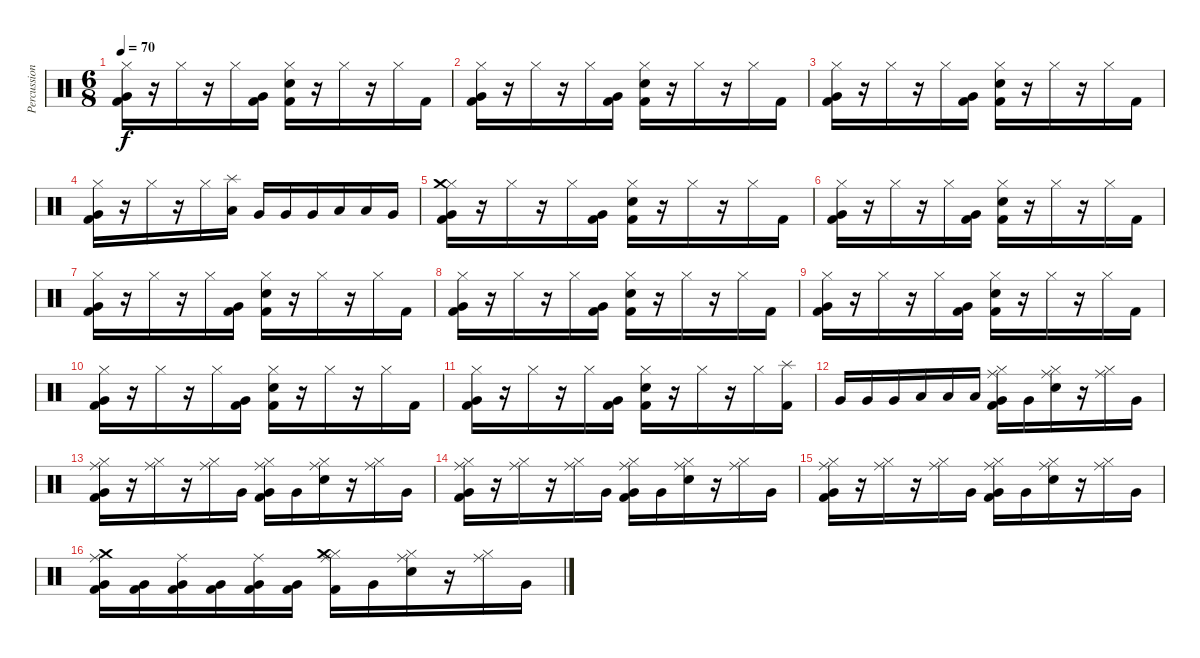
\track ("Percussion" "Percussion") {instrument percussion}
\staff {score}
\articulation defaults
\ts (6 8)
\tempo 70
\clef neutral
\ks c
("Very Low Tom (hit)" "Hi-Hat (closed)" "Kick (hit) 2").16{dy f} r.16 "Hi-Hat (closed)".16 r.16 "Hi-Hat (closed)".16 ("Kick (hit) 2" "Very Low Tom (hit)").16 ("Hi-Hat (closed)" "Electric Snare (hit)" "Kick (hit) 2").16 r.16 "Hi-Hat (closed)".16 r.16 "Hi-Hat (closed)".16 "Kick (hit) 2".16 |
("Very Low Tom (hit)" "Hi-Hat (closed)" "Kick (hit) 2").16 r.16 "Hi-Hat (closed)".16 r.16 "Hi-Hat (closed)".16 ("Kick (hit) 2" "Very Low Tom (hit)").16 ("Hi-Hat (closed)" "Electric Snare (hit)" "Kick (hit) 2").16 r.16 "Hi-Hat (closed)".16 r.16 "Hi-Hat (closed)".16 "Kick (hit) 2".16 |
("Very Low Tom (hit)" "Hi-Hat (closed)" "Kick (hit) 2").16 r.16 "Hi-Hat (closed)".16 r.16 "Hi-Hat (closed)".16 ("Kick (hit) 2" "Very Low Tom (hit)").16 ("Hi-Hat (closed)" "Electric Snare (hit)" "Kick (hit) 2").16 r.16 "Hi-Hat (closed)".16 r.16 "Hi-Hat (closed)".16 "Kick (hit) 2".16 |
("Very Low Tom (hit)" "Hi-Hat (closed)" "Kick (hit) 2").16 r.16 "Hi-Hat (closed)".16 r.16 "Hi-Hat (closed)".16 ("Splash (hit)" "Low Floor Tom (hit)").16 "Very Low Tom (hit)".16 "Very Low Tom (hit)".16 "Very Low Tom (hit)".16 "Low Floor Tom (hit)".16 "Low Floor Tom (hit)".16 "Very Low Tom (hit)".16 |
("Very Low Tom (hit)" "Hi-Hat (closed)" "Crash medium (hit)" "Kick (hit) 2").16 r.16 "Hi-Hat (closed)".16 r.16 "Hi-Hat (closed)".16 ("Kick (hit) 2" "Very Low Tom (hit)").16 ("Hi-Hat (closed)" "Electric Snare (hit)" "Kick (hit) 2").16 r.16 "Hi-Hat (closed)".16 r.16 "Hi-Hat (closed)".16 "Kick (hit) 2".16 |
("Very Low Tom (hit)" "Hi-Hat (closed)" "Kick (hit) 2").16 r.16 "Hi-Hat (closed)".16 r.16 "Hi-Hat (closed)".16 ("Kick (hit) 2" "Very Low Tom (hit)").16 ("Hi-Hat (closed)" "Electric Snare (hit)" "Kick (hit) 2").16 r.16 "Hi-Hat (closed)".16 r.16 "Hi-Hat (closed)".16 "Kick (hit) 2".16 |
("Very Low Tom (hit)" "Hi-Hat (closed)" "Kick (hit) 2").16 r.16 "Hi-Hat (closed)".16 r.16 "Hi-Hat (closed)".16 ("Kick (hit) 2" "Very Low Tom (hit)").16 ("Hi-Hat (closed)" "Electric Snare (hit)" "Kick (hit) 2").16 r.16 "Hi-Hat (closed)".16 r.16 "Hi-Hat (closed)".16 "Kick (hit) 2".16 |
("Very Low Tom (hit)" "Hi-Hat (closed)" "Kick (hit) 2").16 r.16 "Hi-Hat (closed)".16 r.16 "Hi-Hat (closed)".16 ("Kick (hit) 2" "Very Low Tom (hit)").16 ("Hi-Hat (closed)" "Electric Snare (hit)" "Kick (hit) 2").16 r.16 "Hi-Hat (closed)".16 r.16 "Hi-Hat (closed)".16 "Kick (hit) 2".16 |
("Very Low Tom (hit)" "Hi-Hat (closed)" "Kick (hit) 2").16 r.16 "Hi-Hat (closed)".16 r.16 "Hi-Hat (closed)".16 ("Kick (hit) 2" "Very Low Tom (hit)").16 ("Hi-Hat (closed)" "Electric Snare (hit)" "Kick (hit) 2").16 r.16 "Hi-Hat (closed)".16 r.16 "Hi-Hat (closed)".16 "Kick (hit) 2".16 |
("Very Low Tom (hit)" "Hi-Hat (closed)" "Kick (hit) 2").16 r.16 "Hi-Hat (closed)".16 r.16 "Hi-Hat (closed)".16 ("Kick (hit) 2" "Very Low Tom (hit)").16 ("Hi-Hat (closed)" "Electric Snare (hit)" "Kick (hit) 2").16 r.16 "Hi-Hat (closed)".16 r.16 "Hi-Hat (closed)".16 "Kick (hit) 2".16 |
("Very Low Tom (hit)" "Hi-Hat (closed)" "Kick (hit) 2").16 r.16 "Hi-Hat (closed)".16 r.16 "Hi-Hat (closed)".16 ("Kick (hit) 2" "Very Low Tom (hit)").16 ("Hi-Hat (closed)" "Electric Snare (hit)" "Kick (hit) 2").16 r.16 "Hi-Hat (closed)".16 r.16 "Hi-Hat (closed)".16 ("Kick (hit) 2" "Splash (hit)").16 |
"Very Low Tom (hit)".16 "Very Low Tom (hit)".16 "Very Low Tom (hit)".16 "Low Floor Tom (hit)".16 "Low Floor Tom (hit)".16 "Low Floor Tom (hit)".16 ("Ride (middle)" "Very Low Tom (hit)" "Hi-Hat (closed)" "Kick (hit) 2").16 "Very Low Tom (hit)".16 ("Ride (middle)" "Electric Snare (hit)" "Hi-Hat (closed)").16 r.16 ("Ride (middle)" "Hi-Hat (closed)").16 "Very Low Tom (hit)".16 |
("Ride (middle)" "Very Low Tom (hit)" "Hi-Hat (closed)" "Kick (hit) 2").16 r.16 ("Ride (middle)" "Hi-Hat (closed)").16 r.16 ("Ride (middle)" "Hi-Hat (closed)").16 "Very Low Tom (hit)".16 ("Ride (middle)" "Very Low Tom (hit)" "Hi-Hat (closed)" "Kick (hit) 2").16 "Very Low Tom (hit)".16 ("Ride (middle)" "Electric Snare (hit)" "Hi-Hat (closed)").16 r.16 ("Ride (middle)" "Hi-Hat (closed)").16 "Very Low Tom (hit)".16 |
("Ride (middle)" "Very Low Tom (hit)" "Hi-Hat (closed)" "Kick (hit) 2").16 r.16 ("Ride (middle)" "Hi-Hat (closed)").16 r.16 ("Ride (middle)" "Hi-Hat (closed)").16 "Very Low Tom (hit)".16 ("Ride (middle)" "Very Low Tom (hit)" "Hi-Hat (closed)" "Kick (hit) 2").16 "Very Low Tom (hit)".16 ("Ride (middle)" "Electric Snare (hit)" "Hi-Hat (closed)").16 r.16 ("Ride (middle)" "Hi-Hat (closed)").16 "Very Low Tom (hit)".16 |
("Ride (middle)" "Very Low Tom (hit)" "Hi-Hat (closed)" "Kick (hit) 2").16 r.16 ("Ride (middle)" "Hi-Hat (closed)").16 r.16 ("Ride (middle)" "Hi-Hat (closed)").16 "Very Low Tom (hit)".16 ("Ride (middle)" "Very Low Tom (hit)" "Hi-Hat (closed)" "Kick (hit) 2").16 "Very Low Tom (hit)".16 ("Ride (middle)" "Electric Snare (hit)" "Hi-Hat (closed)").16 r.16 ("Ride (middle)" "Hi-Hat (closed)").16 "Very Low Tom (hit)".16 |
("Kick (hit) 2" "Very Low Tom (hit)" "Crash medium (hit)" "Ride (middle)").16 ("Kick (hit) 2" "Very Low Tom (hit)").16 ("Kick (hit) 2" "Very Low Tom (hit)" "Ride (middle)").16 ("Kick (hit) 2" "Very Low Tom (hit)").16 ("Kick (hit) 2" "Very Low Tom (hit)" "Ride (middle)").16 ("Kick (hit) 2" "Very Low Tom (hit)").16 ("Ride (middle)" "Hi-Hat (closed)" "Kick (hit) 2" "Crash medium (hit)").16 "Very Low Tom (hit)".16 ("Ride (middle)" "Electric Snare (hit)" "Hi-Hat (closed)").16 r.16 ("Ride (middle)" "Hi-Hat (closed)").16 "Very Low Tom (hit)".16
